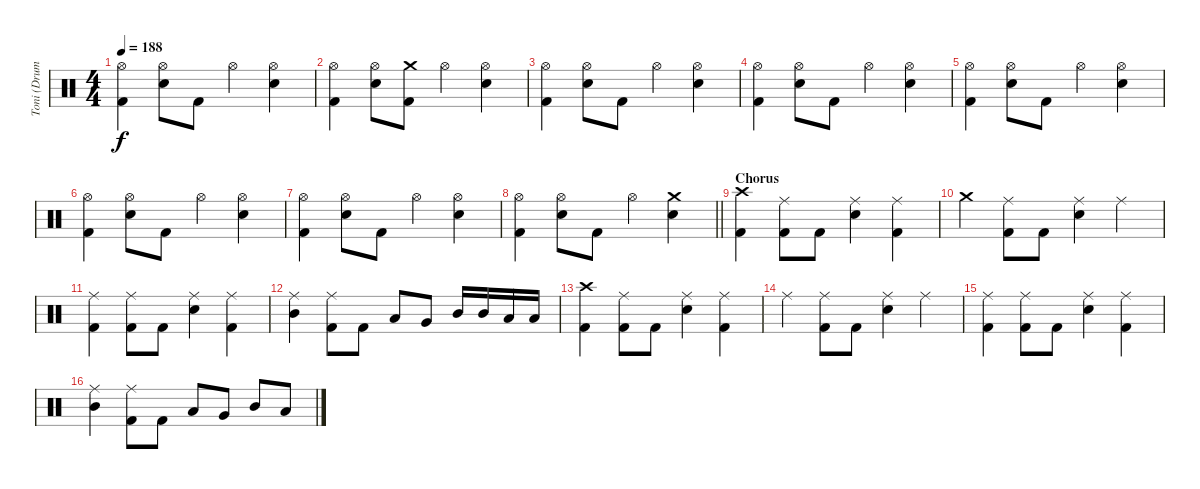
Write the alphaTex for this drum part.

\track ("Toni (Drums)" "Toni (Drum") {instrument percussion}
\staff {score}
\articulation defaults
\ts (4 4)
\tempo 188
\clef neutral
\ks c
("Hi-Hat (open)" "Kick (hit) 2").4{dy f} ("Hi-Hat (open)" "Electric Snare (hit)").8 "Kick (hit) 2".8 "Hi-Hat (open)".4 ("Hi-Hat (open)" "Electric Snare (hit)").4 |
("Hi-Hat (open)" "Kick (hit) 2").4 ("Hi-Hat (open)" "Electric Snare (hit)").8 ("Crash medium (hit)" "Kick (hit) 2").8 "Hi-Hat (open)".4 ("Hi-Hat (open)" "Electric Snare (hit)").4 |
("Hi-Hat (open)" "Kick (hit) 2").4 ("Hi-Hat (open)" "Electric Snare (hit)").8 "Kick (hit) 2".8 "Hi-Hat (open)".4 ("Hi-Hat (open)" "Electric Snare (hit)").4 |
("Hi-Hat (open)" "Kick (hit) 2").4 ("Hi-Hat (open)" "Electric Snare (hit)").8 "Kick (hit) 2".8 "Hi-Hat (open)".4 ("Hi-Hat (open)" "Electric Snare (hit)").4 |
("Hi-Hat (open)" "Kick (hit) 2").4 ("Hi-Hat (open)" "Electric Snare (hit)").8 "Kick (hit) 2".8 "Hi-Hat (open)".4 ("Hi-Hat (open)" "Electric Snare (hit)").4 |
("Hi-Hat (open)" "Kick (hit) 2").4 ("Hi-Hat (open)" "Electric Snare (hit)").8 "Kick (hit) 2".8 "Hi-Hat (open)".4 ("Hi-Hat (open)" "Electric Snare (hit)").4 |
("Hi-Hat (open)" "Kick (hit) 2").4 ("Hi-Hat (open)" "Electric Snare (hit)").8 "Kick (hit) 2".8 "Hi-Hat (open)".4 ("Hi-Hat (open)" "Electric Snare (hit)").4 |
\barLineRight lightlight
("Hi-Hat (open)" "Kick (hit) 2").4 ("Hi-Hat (open)" "Electric Snare (hit)").8 "Kick (hit) 2".8 "Hi-Hat (open)".4 ("Crash medium (hit)" "Electric Snare (hit)").4 |
\section ("" "Chorus")
("Crash high (hit)" "Kick (hit) 2").4 ("Ride (middle)" "Kick (hit) 2").8 "Kick (hit) 2".8 ("Ride (middle)" "Electric Snare (hit)").4 ("Ride (middle)" "Kick (hit) 2").4 |
"Crash medium (hit)".4 ("Ride (middle)" "Kick (hit) 2").8 "Kick (hit) 2".8 ("Ride (middle)" "Electric Snare (hit)").4 "Ride (middle)".4 |
("Ride (middle)" "Kick (hit) 2").4 ("Ride (middle)" "Kick (hit) 2").8 "Kick (hit) 2".8 ("Ride (middle)" "Electric Snare (hit)").4 ("Ride (middle)" "Kick (hit) 2").4 |
("Ride (middle)" "Mid Tom (hit)").4 ("Ride (middle)" "Kick (hit) 2").8 "Kick (hit) 2".8 "Low Tom (hit)".8 "Very Low Tom (hit)".8 "Mid Tom (hit)".16 "Mid Tom (hit)".16 "Low Tom (hit)".16 "Low Tom (hit)".16 |
("Crash high (hit)" "Kick (hit) 2").4 ("Ride (middle)" "Kick (hit) 2").8 "Kick (hit) 2".8 ("Ride (middle)" "Electric Snare (hit)").4 ("Ride (middle)" "Kick (hit) 2").4 |
"Ride (middle)".4 ("Ride (middle)" "Kick (hit) 2").8 "Kick (hit) 2".8 ("Ride (middle)" "Electric Snare (hit)").4 "Ride (middle)".4 |
("Ride (middle)" "Kick (hit) 2").4 ("Ride (middle)" "Kick (hit) 2").8 "Kick (hit) 2".8 ("Ride (middle)" "Electric Snare (hit)").4 ("Ride (middle)" "Kick (hit) 2").4 |
("Ride (middle)" "Mid Tom (hit)").4 ("Ride (middle)" "Kick (hit) 2").8 "Kick (hit) 2".8 "Low Tom (hit)".8 "Very Low Tom (hit)".8 "Mid Tom (hit)".8 "Low Tom (hit)".8
